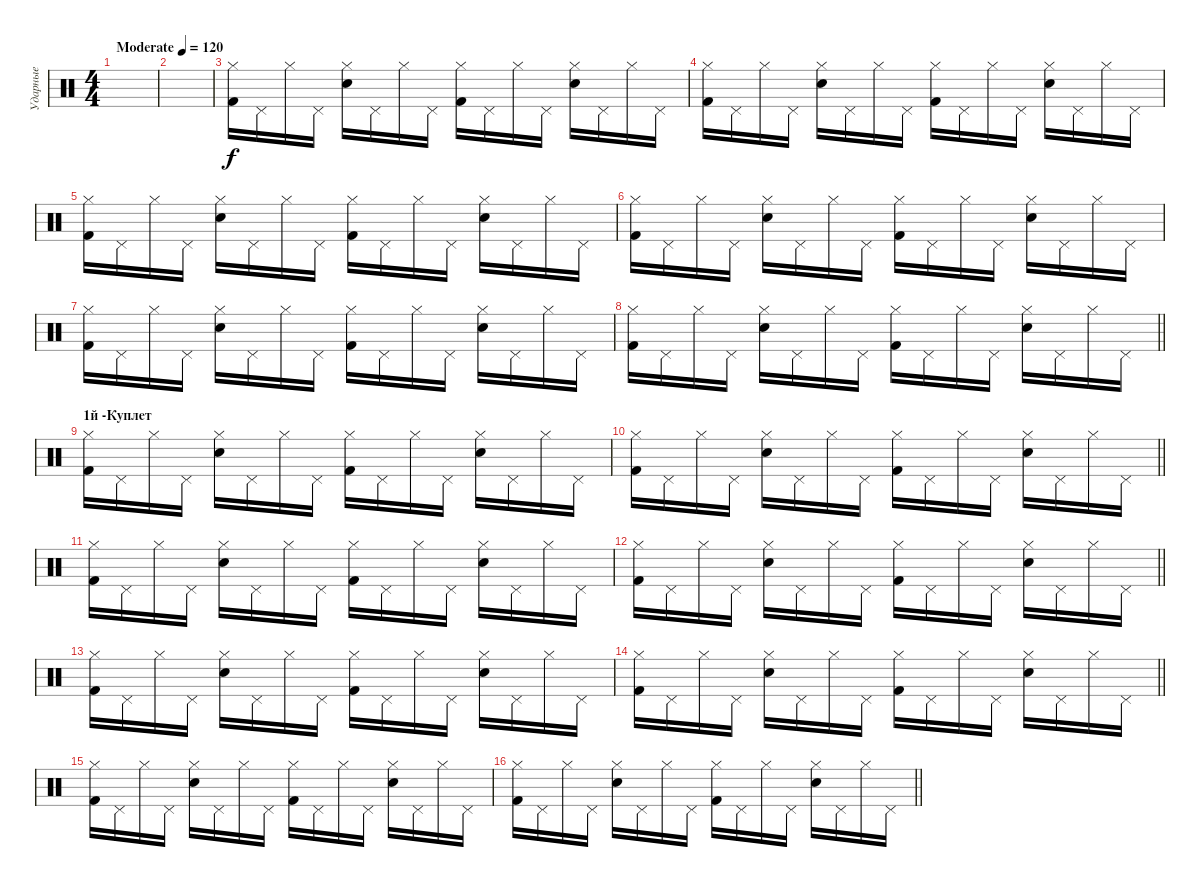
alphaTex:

\track ("Ударные" "Ударные") {instrument percussion}
\staff {score}
\articulation defaults
\ts (4 4)
\tempo (120 "Moderate")
\clef neutral
\ks c
|
|
("Hi-Hat (closed)" "Kick (hit) 2").16 "Pedal Hi-Hat (hit)".16 "Hi-Hat (closed)".16 "Pedal Hi-Hat (hit)".16 ("Hi-Hat (closed)" "Snare (hit) 2").16 "Pedal Hi-Hat (hit)".16 "Hi-Hat (closed)".16 "Pedal Hi-Hat (hit)".16 ("Hi-Hat (closed)" "Kick (hit) 2").16 "Pedal Hi-Hat (hit)".16 "Hi-Hat (closed)".16 "Pedal Hi-Hat (hit)".16 ("Hi-Hat (closed)" "Snare (hit) 2").16 "Pedal Hi-Hat (hit)".16 "Hi-Hat (closed)".16 "Pedal Hi-Hat (hit)".16 |
("Hi-Hat (closed)" "Kick (hit) 2").16 "Pedal Hi-Hat (hit)".16 "Hi-Hat (closed)".16 "Pedal Hi-Hat (hit)".16 ("Hi-Hat (closed)" "Snare (hit) 2").16 "Pedal Hi-Hat (hit)".16 "Hi-Hat (closed)".16 "Pedal Hi-Hat (hit)".16 ("Hi-Hat (closed)" "Kick (hit) 2").16 "Pedal Hi-Hat (hit)".16 "Hi-Hat (closed)".16 "Pedal Hi-Hat (hit)".16 ("Hi-Hat (closed)" "Snare (hit) 2").16 "Pedal Hi-Hat (hit)".16 "Hi-Hat (closed)".16 "Pedal Hi-Hat (hit)".16 |
("Hi-Hat (closed)" "Kick (hit) 2").16 "Pedal Hi-Hat (hit)".16 "Hi-Hat (closed)".16 "Pedal Hi-Hat (hit)".16 ("Hi-Hat (closed)" "Snare (hit) 2").16 "Pedal Hi-Hat (hit)".16 "Hi-Hat (closed)".16 "Pedal Hi-Hat (hit)".16 ("Hi-Hat (closed)" "Kick (hit) 2").16 "Pedal Hi-Hat (hit)".16 "Hi-Hat (closed)".16 "Pedal Hi-Hat (hit)".16 ("Hi-Hat (closed)" "Snare (hit) 2").16 "Pedal Hi-Hat (hit)".16 "Hi-Hat (closed)".16 "Pedal Hi-Hat (hit)".16 |
("Hi-Hat (closed)" "Kick (hit) 2").16 "Pedal Hi-Hat (hit)".16 "Hi-Hat (closed)".16 "Pedal Hi-Hat (hit)".16 ("Hi-Hat (closed)" "Snare (hit) 2").16 "Pedal Hi-Hat (hit)".16 "Hi-Hat (closed)".16 "Pedal Hi-Hat (hit)".16 ("Hi-Hat (closed)" "Kick (hit) 2").16 "Pedal Hi-Hat (hit)".16 "Hi-Hat (closed)".16 "Pedal Hi-Hat (hit)".16 ("Hi-Hat (closed)" "Snare (hit) 2").16 "Pedal Hi-Hat (hit)".16 "Hi-Hat (closed)".16 "Pedal Hi-Hat (hit)".16 |
("Hi-Hat (closed)" "Kick (hit) 2").16 "Pedal Hi-Hat (hit)".16 "Hi-Hat (closed)".16 "Pedal Hi-Hat (hit)".16 ("Hi-Hat (closed)" "Snare (hit) 2").16 "Pedal Hi-Hat (hit)".16 "Hi-Hat (closed)".16 "Pedal Hi-Hat (hit)".16 ("Hi-Hat (closed)" "Kick (hit) 2").16 "Pedal Hi-Hat (hit)".16 "Hi-Hat (closed)".16 "Pedal Hi-Hat (hit)".16 ("Hi-Hat (closed)" "Snare (hit) 2").16 "Pedal Hi-Hat (hit)".16 "Hi-Hat (closed)".16 "Pedal Hi-Hat (hit)".16 |
\barLineRight lightlight
("Hi-Hat (closed)" "Kick (hit) 2").16 "Pedal Hi-Hat (hit)".16 "Hi-Hat (closed)".16 "Pedal Hi-Hat (hit)".16 ("Hi-Hat (closed)" "Snare (hit) 2").16 "Pedal Hi-Hat (hit)".16 "Hi-Hat (closed)".16 "Pedal Hi-Hat (hit)".16 ("Hi-Hat (closed)" "Kick (hit) 2").16 "Pedal Hi-Hat (hit)".16 "Hi-Hat (closed)".16 "Pedal Hi-Hat (hit)".16 ("Hi-Hat (closed)" "Snare (hit) 2").16 "Pedal Hi-Hat (hit)".16 "Hi-Hat (closed)".16 "Pedal Hi-Hat (hit)".16 |
\section ("" "1й -Куплет")
("Hi-Hat (closed)" "Kick (hit) 2").16 "Pedal Hi-Hat (hit)".16 "Hi-Hat (closed)".16 "Pedal Hi-Hat (hit)".16 ("Hi-Hat (closed)" "Snare (hit) 2").16 "Pedal Hi-Hat (hit)".16 "Hi-Hat (closed)".16 "Pedal Hi-Hat (hit)".16 ("Hi-Hat (closed)" "Kick (hit) 2").16 "Pedal Hi-Hat (hit)".16 "Hi-Hat (closed)".16 "Pedal Hi-Hat (hit)".16 ("Hi-Hat (closed)" "Snare (hit) 2").16 "Pedal Hi-Hat (hit)".16 "Hi-Hat (closed)".16 "Pedal Hi-Hat (hit)".16 |
\barLineRight lightlight
("Hi-Hat (closed)" "Kick (hit) 2").16 "Pedal Hi-Hat (hit)".16 "Hi-Hat (closed)".16 "Pedal Hi-Hat (hit)".16 ("Hi-Hat (closed)" "Snare (hit) 2").16 "Pedal Hi-Hat (hit)".16 "Hi-Hat (closed)".16 "Pedal Hi-Hat (hit)".16 ("Hi-Hat (closed)" "Kick (hit) 2").16 "Pedal Hi-Hat (hit)".16 "Hi-Hat (closed)".16 "Pedal Hi-Hat (hit)".16 ("Hi-Hat (closed)" "Snare (hit) 2").16 "Pedal Hi-Hat (hit)".16 "Hi-Hat (closed)".16 "Pedal Hi-Hat (hit)".16 |
("Hi-Hat (closed)" "Kick (hit) 2").16 "Pedal Hi-Hat (hit)".16 "Hi-Hat (closed)".16 "Pedal Hi-Hat (hit)".16 ("Hi-Hat (closed)" "Snare (hit) 2").16 "Pedal Hi-Hat (hit)".16 "Hi-Hat (closed)".16 "Pedal Hi-Hat (hit)".16 ("Hi-Hat (closed)" "Kick (hit) 2").16 "Pedal Hi-Hat (hit)".16 "Hi-Hat (closed)".16 "Pedal Hi-Hat (hit)".16 ("Hi-Hat (closed)" "Snare (hit) 2").16 "Pedal Hi-Hat (hit)".16 "Hi-Hat (closed)".16 "Pedal Hi-Hat (hit)".16 |
\barLineRight lightlight
("Hi-Hat (closed)" "Kick (hit) 2").16 "Pedal Hi-Hat (hit)".16 "Hi-Hat (closed)".16 "Pedal Hi-Hat (hit)".16 ("Hi-Hat (closed)" "Snare (hit) 2").16 "Pedal Hi-Hat (hit)".16 "Hi-Hat (closed)".16 "Pedal Hi-Hat (hit)".16 ("Hi-Hat (closed)" "Kick (hit) 2").16 "Pedal Hi-Hat (hit)".16 "Hi-Hat (closed)".16 "Pedal Hi-Hat (hit)".16 ("Hi-Hat (closed)" "Snare (hit) 2").16 "Pedal Hi-Hat (hit)".16 "Hi-Hat (closed)".16 "Pedal Hi-Hat (hit)".16 |
("Hi-Hat (closed)" "Kick (hit) 2").16 "Pedal Hi-Hat (hit)".16 "Hi-Hat (closed)".16 "Pedal Hi-Hat (hit)".16 ("Hi-Hat (closed)" "Snare (hit) 2").16 "Pedal Hi-Hat (hit)".16 "Hi-Hat (closed)".16 "Pedal Hi-Hat (hit)".16 ("Hi-Hat (closed)" "Kick (hit) 2").16 "Pedal Hi-Hat (hit)".16 "Hi-Hat (closed)".16 "Pedal Hi-Hat (hit)".16 ("Hi-Hat (closed)" "Snare (hit) 2").16 "Pedal Hi-Hat (hit)".16 "Hi-Hat (closed)".16 "Pedal Hi-Hat (hit)".16 |
\barLineRight lightlight
("Hi-Hat (closed)" "Kick (hit) 2").16 "Pedal Hi-Hat (hit)".16 "Hi-Hat (closed)".16 "Pedal Hi-Hat (hit)".16 ("Hi-Hat (closed)" "Snare (hit) 2").16 "Pedal Hi-Hat (hit)".16 "Hi-Hat (closed)".16 "Pedal Hi-Hat (hit)".16 ("Hi-Hat (closed)" "Kick (hit) 2").16 "Pedal Hi-Hat (hit)".16 "Hi-Hat (closed)".16 "Pedal Hi-Hat (hit)".16 ("Hi-Hat (closed)" "Snare (hit) 2").16 "Pedal Hi-Hat (hit)".16 "Hi-Hat (closed)".16 "Pedal Hi-Hat (hit)".16 |
("Hi-Hat (closed)" "Kick (hit) 2").16 "Pedal Hi-Hat (hit)".16 "Hi-Hat (closed)".16 "Pedal Hi-Hat (hit)".16 ("Hi-Hat (closed)" "Snare (hit) 2").16 "Pedal Hi-Hat (hit)".16 "Hi-Hat (closed)".16 "Pedal Hi-Hat (hit)".16 ("Hi-Hat (closed)" "Kick (hit) 2").16 "Pedal Hi-Hat (hit)".16 "Hi-Hat (closed)".16 "Pedal Hi-Hat (hit)".16 ("Hi-Hat (closed)" "Snare (hit) 2").16 "Pedal Hi-Hat (hit)".16 "Hi-Hat (closed)".16 "Pedal Hi-Hat (hit)".16 |
\barLineRight lightlight
("Hi-Hat (closed)" "Kick (hit) 2").16 "Pedal Hi-Hat (hit)".16 "Hi-Hat (closed)".16 "Pedal Hi-Hat (hit)".16 ("Hi-Hat (closed)" "Snare (hit) 2").16 "Pedal Hi-Hat (hit)".16 "Hi-Hat (closed)".16 "Pedal Hi-Hat (hit)".16 ("Hi-Hat (closed)" "Kick (hit) 2").16 "Pedal Hi-Hat (hit)".16 "Hi-Hat (closed)".16 "Pedal Hi-Hat (hit)".16 ("Hi-Hat (closed)" "Snare (hit) 2").16 "Pedal Hi-Hat (hit)".16 "Hi-Hat (closed)".16 "Pedal Hi-Hat (hit)".16
